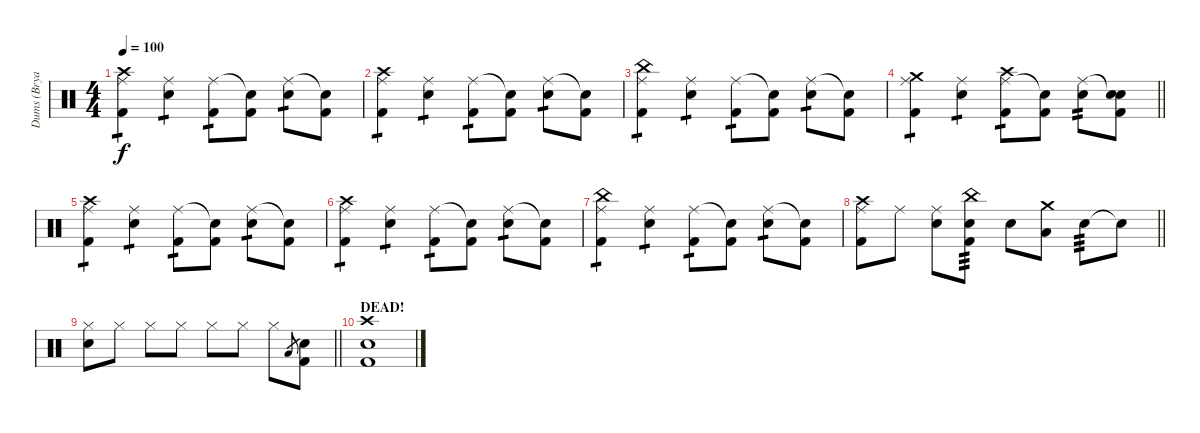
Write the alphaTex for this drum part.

\track ("Dums (Bryar)" "Dums (Brya") {instrument percussion}
\staff {score}
\articulation defaults
\ts (4 4)
\tempo 100
\clef neutral
\ks c
("Ride (middle)" "Crash high (hit)" "Kick (hit) 2").4{tp 1 dy f} ("Ride (middle)" "Electric Snare (hit)").4{tp 1} ("Ride (middle)" "Kick (hit) 2").8{tp 1} ("Snare (hit)"{t} "Kick (hit) 2").8 ("Ride (middle)" "Electric Snare (hit)").8{tp 1} ("Snare (hit)"{t} "Kick (hit) 2").8 |
("Ride (middle)" "Crash high (hit)" "Kick (hit) 2").4{tp 1} ("Ride (middle)" "Electric Snare (hit)").4{tp 1} ("Ride (middle)" "Kick (hit) 2").8{tp 1} ("Snare (hit)"{t} "Kick (hit) 2").8 ("Ride (middle)" "Electric Snare (hit)").8{tp 1} ("Snare (hit)"{t} "Kick (hit) 2").8 |
("Ride (middle)" "China (hit)" "Kick (hit) 2").4{tp 1} ("Ride (middle)" "Electric Snare (hit)").4{tp 1} ("Ride (middle)" "Kick (hit) 2").8{tp 1} ("Snare (hit)"{t} "Kick (hit) 2").8 ("Ride (middle)" "Electric Snare (hit)").8{tp 1} ("Snare (hit)"{t} "Kick (hit) 2").8 |
\barLineRight lightlight
("Ride (middle)" "Crash medium (hit)" "Kick (hit) 2").4{tp 1} ("Ride (middle)" "Electric Snare (hit)").4{tp 1} ("Ride (middle)" "Crash high (hit)" "Kick (hit) 2").8{tp 1} ("Snare (hit)"{t} "Kick (hit) 2").8 ("Ride (middle)" "Electric Snare (hit)").8{tp 2} ("Snare (hit)"{t} "Electric Snare (hit)" "Kick (hit) 2").8 |
("Ride (middle)" "Crash high (hit)" "Kick (hit) 2").4{tp 1} ("Ride (middle)" "Electric Snare (hit)").4{tp 1} ("Ride (middle)" "Kick (hit) 2").8{tp 1} ("Snare (hit)"{t} "Kick (hit) 2").8 ("Ride (middle)" "Electric Snare (hit)").8{tp 1} ("Snare (hit)"{t} "Kick (hit) 2").8 |
("Ride (middle)" "Crash high (hit)" "Kick (hit) 2").4{tp 1} ("Ride (middle)" "Electric Snare (hit)").4{tp 1} ("Ride (middle)" "Kick (hit) 2").8{tp 1} ("Snare (hit)"{t} "Kick (hit) 2").8 ("Ride (middle)" "Electric Snare (hit)").8{tp 1} ("Snare (hit)"{t} "Kick (hit) 2").8 |
("Ride (middle)" "China (hit)" "Kick (hit) 2").4{tp 1} ("Ride (middle)" "Electric Snare (hit)").4{tp 1} ("Ride (middle)" "Kick (hit) 2").8{tp 1} ("Snare (hit)"{t} "Kick (hit) 2").8 ("Ride (middle)" "Electric Snare (hit)").8{tp 1} ("Snare (hit)"{t} "Kick (hit) 2").8 |
\barLineRight lightlight
("Ride (middle)" "Crash high (hit)" "Kick (hit) 2").8 "Ride (middle)".8 ("Ride (middle)" "Electric Snare (hit)").8 ("China (hit)" "Electric Snare (hit)" "Kick (hit) 2").8{tp 3} "Electric Snare (hit)".8 ("Crash medium (hit)" "Low Tom (hit)").8 "Electric Snare (hit)".8{tp 3} "Electric Snare (hit)"{t}.8 |
\barLineRight lightlight
("Hi-Hat (closed)" "Electric Snare (hit)").8 "Hi-Hat (closed)".8 "Hi-Hat (closed)".8 "Hi-Hat (closed)".8 "Hi-Hat (closed)".8 "Hi-Hat (closed)".8 "Hi-Hat (closed)".8 "Low Floor Tom (hit)".8{gr} ("Electric Snare (hit)" "Kick (hit) 2").8 |
\section ("" "DEAD!")
("Crash high (hit)" "Electric Snare (hit)" "Kick (hit) 2").1
